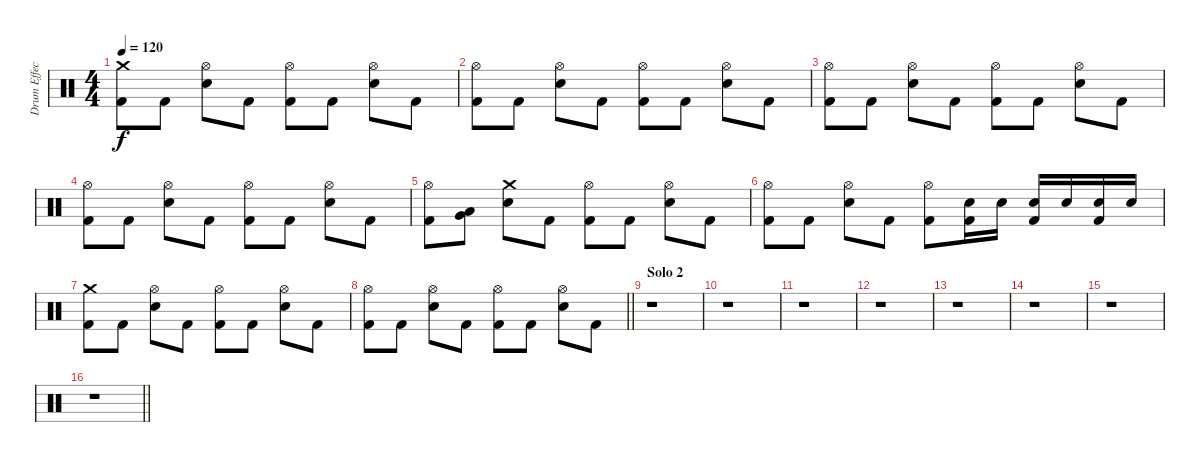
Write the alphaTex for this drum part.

\track ("Drum Effects" "Drum Effec") {instrument percussion}
\staff {score}
\articulation defaults
\ts (4 4)
\tempo 120
\clef neutral
\ks c
("Crash medium (hit)" "Kick (hit) 2").8{dy f} "Kick (hit) 2".8 ("Hi-Hat (open)" "Electric Snare (hit)").8 "Kick (hit) 2".8 ("Hi-Hat (open)" "Kick (hit) 2").8 "Kick (hit) 2".8 ("Hi-Hat (open)" "Electric Snare (hit)").8 "Kick (hit) 2".8 |
("Hi-Hat (open)" "Kick (hit) 2").8 "Kick (hit) 2".8 ("Hi-Hat (open)" "Electric Snare (hit)").8 "Kick (hit) 2".8 ("Hi-Hat (open)" "Kick (hit) 2").8 "Kick (hit) 2".8 ("Hi-Hat (open)" "Electric Snare (hit)").8 "Kick (hit) 2".8 |
("Hi-Hat (open)" "Kick (hit) 2").8 "Kick (hit) 2".8 ("Hi-Hat (open)" "Electric Snare (hit)").8 "Kick (hit) 2".8 ("Hi-Hat (open)" "Kick (hit) 2").8 "Kick (hit) 2".8 ("Hi-Hat (open)" "Electric Snare (hit)").8 "Kick (hit) 2".8 |
("Hi-Hat (open)" "Kick (hit) 2").8 "Kick (hit) 2".8 ("Hi-Hat (open)" "Electric Snare (hit)").8 "Kick (hit) 2".8 ("Hi-Hat (open)" "Kick (hit) 2").8 "Kick (hit) 2".8 ("Hi-Hat (open)" "Electric Snare (hit)").8 "Kick (hit) 2".8 |
("Hi-Hat (open)" "Kick (hit) 2").8 ("Low Tom (hit)" "Very Low Tom (hit)").8 ("Crash medium (hit)" "Electric Snare (hit)").8 "Kick (hit) 2".8 ("Hi-Hat (open)" "Kick (hit) 2").8 "Kick (hit) 2".8 ("Hi-Hat (open)" "Electric Snare (hit)").8 "Kick (hit) 2".8 |
("Hi-Hat (open)" "Kick (hit) 2").8 "Kick (hit) 2".8 ("Hi-Hat (open)" "Electric Snare (hit)").8 "Kick (hit) 2".8 ("Hi-Hat (open)" "Kick (hit) 2").8 ("Electric Snare (hit)" "Kick (hit) 2").16 "Electric Snare (hit)".16 ("Electric Snare (hit)" "Kick (hit) 2").16 "Electric Snare (hit)".16 ("Electric Snare (hit)" "Kick (hit) 2").16 "Electric Snare (hit)".16 |
("Crash medium (hit)" "Kick (hit) 2").8 "Kick (hit) 2".8 ("Hi-Hat (open)" "Electric Snare (hit)").8 "Kick (hit) 2".8 ("Hi-Hat (open)" "Kick (hit) 2").8 "Kick (hit) 2".8 ("Hi-Hat (open)" "Electric Snare (hit)").8 "Kick (hit) 2".8 |
\barLineRight lightlight
("Hi-Hat (open)" "Kick (hit) 2").8 "Kick (hit) 2".8 ("Hi-Hat (open)" "Electric Snare (hit)").8 "Kick (hit) 2".8 ("Hi-Hat (open)" "Kick (hit) 2").8 "Kick (hit) 2".8 ("Hi-Hat (open)" "Electric Snare (hit)").8 "Kick (hit) 2".8 |
\section ("" "Solo 2")
r.1 |
r.1 |
r.1 |
r.1 |
r.1 |
r.1 |
r.1 |
\barLineRight lightlight
r.1
